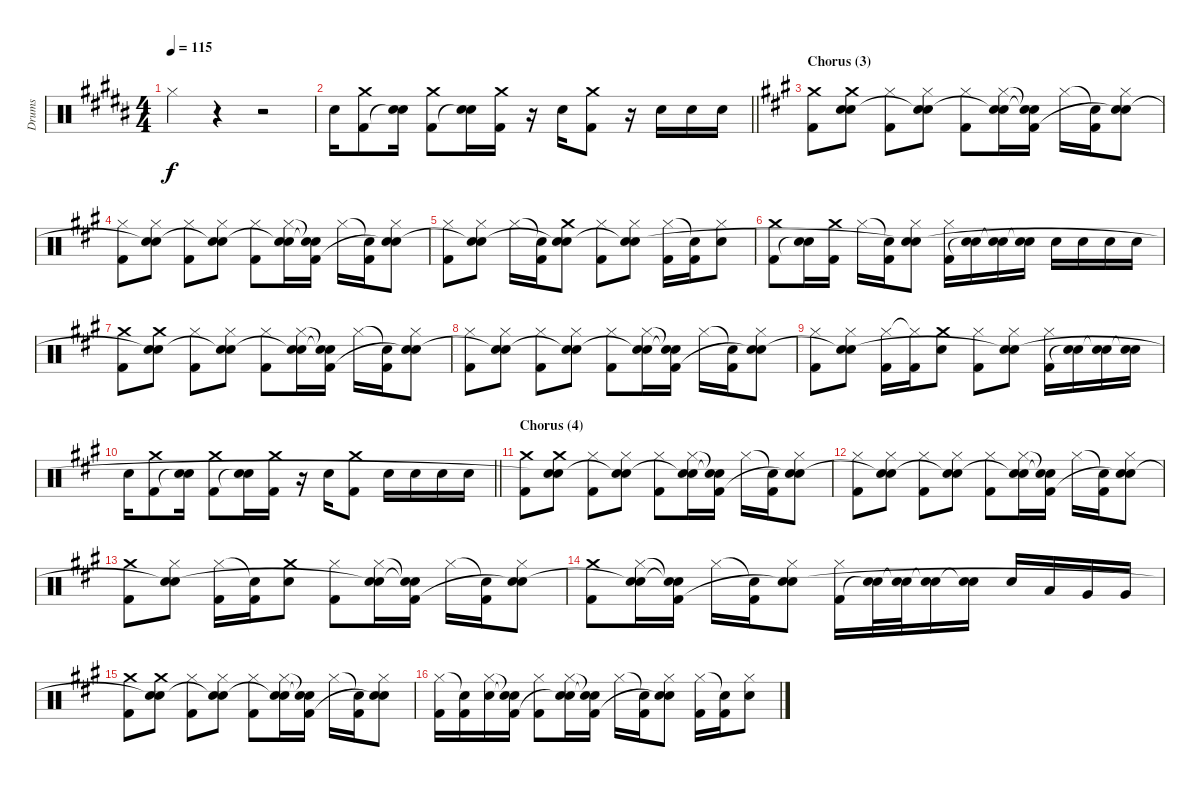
\track ("Drums" "Drums") {instrument percussion}
\staff {score}
\articulation defaults
\ts (4 4)
\tempo 115
\clef neutral
\ks b "Hi-Hat (closed)".4{dy f}
r.4 r.2 |
\barLineRight lightlight "Electric Snare (hit)".16
("Crash medium (hit)" "Kick (hit) 2").8 ("Electric Snare (hit)" "Snare (hit)"{t}).16 ("Crash medium (hit)" "Kick (hit) 2").8 ("Electric Snare (hit)" "Snare (hit)"{t}).16 ("Crash medium (hit)" "Kick (hit) 2").16 r.16 "Electric Snare (hit)".16 ("Crash medium (hit)" "Kick (hit) 2").8 r.16 "Electric Snare (hit)".16 "Electric Snare (hit)".16 "Electric Snare (hit)".16 |
\section ("" "Chorus (3)")
\ks a
("Crash medium (hit)" "Kick (hit) 2").8 ("Crash medium (hit)" "Electric Snare (hit)" "Snare (hit)").8 ("Hi-Hat (closed)" "Kick (hit) 2").8 ("Hi-Hat (closed)" "Electric Snare (hit)" "Snare (hit)"{t}).8 ("Hi-Hat (closed)" "Kick (hit) 2").8 ("Hi-Hat (closed)" "Electric Snare (hit)" "Snare (hit)"{t}).16 ("Snare (hit)"{t} "Snare (hit)"{t} "Kick (hit) 2").16 "Hi-Hat (closed)".16 ("Snare (hit)"{t} "Kick (hit) 2").16 ("Hi-Hat (closed)" "Electric Snare (hit)" "Snare (hit)"{t}).8 |
("Hi-Hat (closed)" "Kick (hit) 2").8 ("Hi-Hat (closed)" "Electric Snare (hit)" "Snare (hit)"{t}).8 ("Hi-Hat (closed)" "Kick (hit) 2").8 ("Hi-Hat (closed)" "Electric Snare (hit)" "Snare (hit)"{t}).8 ("Hi-Hat (closed)" "Kick (hit) 2").8 ("Hi-Hat (closed)" "Electric Snare (hit)" "Snare (hit)"{t}).16 ("Snare (hit)"{t} "Snare (hit)"{t} "Kick (hit) 2").16 "Hi-Hat (closed)".16 ("Snare (hit)"{t} "Kick (hit) 2").16 ("Hi-Hat (closed)" "Electric Snare (hit)" "Snare (hit)"{t}).8 |
("Hi-Hat (closed)" "Kick (hit) 2").8 ("Hi-Hat (closed)" "Electric Snare (hit)" "Snare (hit)"{t}).8 "Hi-Hat (closed)".16 ("Snare (hit)"{t} "Kick (hit) 2").16 ("Crash medium (hit)" "Electric Snare (hit)" "Snare (hit)"{t}).8 ("Hi-Hat (closed)" "Kick (hit) 2").8 ("Hi-Hat (closed)" "Electric Snare (hit)" "Snare (hit)"{t}).8 ("Hi-Hat (closed)" "Kick (hit) 2").16 ("Snare (hit)"{t} "Kick (hit) 2").16 ("Hi-Hat (closed)" "Electric Snare (hit)").8 |
("Crash medium (hit)" "Kick (hit) 2").8 ("Electric Snare (hit)" "Snare (hit)"{t}).16 ("Crash medium (hit)" "Kick (hit) 2").16 "Hi-Hat (closed)".16 ("Snare (hit)"{t} "Kick (hit) 2").16 ("Hi-Hat (closed)" "Electric Snare (hit)" "Snare (hit)"{t}).8 ("Hi-Hat (closed)" "Kick (hit) 2").16 ("Electric Snare (hit)" "Snare (hit)"{t}).16 ("Electric Snare (hit)" "Snare (hit)"{t}).16 ("Electric Snare (hit)" "Snare (hit)"{t}).16 "Electric Snare (hit)".16 "Electric Snare (hit)".16 "Electric Snare (hit)".16 "Electric Snare (hit)".16 |
("Crash medium (hit)" "Kick (hit) 2").8 ("Crash medium (hit)" "Electric Snare (hit)" "Snare (hit)"{t}).8 ("Hi-Hat (closed)" "Kick (hit) 2").8 ("Hi-Hat (closed)" "Electric Snare (hit)" "Snare (hit)"{t}).8 ("Hi-Hat (closed)" "Kick (hit) 2").8 ("Hi-Hat (closed)" "Electric Snare (hit)" "Snare (hit)"{t}).16 ("Snare (hit)"{t} "Snare (hit)"{t} "Kick (hit) 2").16 "Hi-Hat (closed)".16 ("Snare (hit)"{t} "Kick (hit) 2").16 ("Hi-Hat (closed)" "Electric Snare (hit)" "Snare (hit)"{t}).8 |
("Hi-Hat (closed)" "Kick (hit) 2").8 ("Hi-Hat (closed)" "Electric Snare (hit)" "Snare (hit)"{t}).8 ("Hi-Hat (closed)" "Kick (hit) 2").8 ("Hi-Hat (closed)" "Electric Snare (hit)" "Snare (hit)"{t}).8 ("Hi-Hat (closed)" "Kick (hit) 2").8 ("Hi-Hat (closed)" "Electric Snare (hit)" "Snare (hit)"{t}).16 ("Snare (hit)"{t} "Snare (hit)"{t} "Kick (hit) 2").16 "Hi-Hat (closed)".16 ("Snare (hit)"{t} "Kick (hit) 2").16 ("Hi-Hat (closed)" "Electric Snare (hit)" "Snare (hit)"{t}).8 |
("Hi-Hat (closed)" "Kick (hit) 2").8 ("Hi-Hat (closed)" "Electric Snare (hit)" "Snare (hit)"{t}).8 ("Hi-Hat (closed)" "Kick (hit) 2").16 ("Hi-Hat (closed)"{t} "Kick (hit) 2").16 ("Crash medium (hit)" "Electric Snare (hit)").8 ("Hi-Hat (closed)" "Kick (hit) 2").8 ("Hi-Hat (closed)" "Electric Snare (hit)" "Snare (hit)"{t}).8 ("Hi-Hat (closed)" "Kick (hit) 2").16 ("Electric Snare (hit)" "Snare (hit)"{t}).16 ("Electric Snare (hit)" "Snare (hit)"{t}).16 ("Electric Snare (hit)" "Snare (hit)"{t}).16 |
\barLineRight lightlight "Electric Snare (hit)".16
("Crash medium (hit)" "Kick (hit) 2").8 ("Electric Snare (hit)" "Snare (hit)"{t}).16 ("Crash medium (hit)" "Kick (hit) 2").8 ("Electric Snare (hit)" "Snare (hit)"{t}).16 ("Crash medium (hit)" "Kick (hit) 2").16 r.16 "Electric Snare (hit)".16 ("Crash medium (hit)" "Kick (hit) 2").8 "Electric Snare (hit)".16 "Electric Snare (hit)".16 "Electric Snare (hit)".16 "Electric Snare (hit)".16 |
\section ("" "Chorus (4)")
("Crash medium (hit)" "Kick (hit) 2").8 ("Crash medium (hit)" "Electric Snare (hit)" "Snare (hit)"{t}).8 ("Hi-Hat (closed)" "Kick (hit) 2").8 ("Hi-Hat (closed)" "Electric Snare (hit)" "Snare (hit)"{t}).8 ("Hi-Hat (closed)" "Kick (hit) 2").8 ("Hi-Hat (closed)" "Electric Snare (hit)" "Snare (hit)"{t}).16 ("Snare (hit)"{t} "Snare (hit)"{t} "Kick (hit) 2").16 "Hi-Hat (closed)".16 ("Snare (hit)"{t} "Kick (hit) 2").16 ("Hi-Hat (closed)" "Electric Snare (hit)" "Snare (hit)"{t}).8 |
("Hi-Hat (closed)" "Kick (hit) 2").8 ("Hi-Hat (closed)" "Electric Snare (hit)" "Snare (hit)"{t}).8 ("Hi-Hat (closed)" "Kick (hit) 2").8 ("Hi-Hat (closed)" "Electric Snare (hit)" "Snare (hit)"{t}).8 ("Hi-Hat (closed)" "Kick (hit) 2").8 ("Hi-Hat (closed)" "Electric Snare (hit)" "Snare (hit)"{t}).16 ("Snare (hit)"{t} "Snare (hit)"{t} "Kick (hit) 2").16 "Hi-Hat (closed)".16 ("Snare (hit)"{t} "Kick (hit) 2").16 ("Hi-Hat (closed)" "Electric Snare (hit)" "Snare (hit)"{t}).8 |
("Crash medium (hit)" "Kick (hit) 2").8 ("Hi-Hat (closed)" "Electric Snare (hit)" "Snare (hit)"{t}).8 ("Hi-Hat (closed)" "Kick (hit) 2").16 ("Snare (hit)"{t} "Kick (hit) 2").16 ("Crash medium (hit)" "Electric Snare (hit)").8 ("Hi-Hat (closed)" "Kick (hit) 2").8 ("Hi-Hat (closed)" "Electric Snare (hit)" "Snare (hit)"{t}).16 ("Snare (hit)"{t} "Snare (hit)"{t} "Kick (hit) 2").16 "Hi-Hat (closed)".16 ("Snare (hit)"{t} "Kick (hit) 2").16 ("Hi-Hat (closed)" "Electric Snare (hit)" "Snare (hit)"{t}).8 |
("Crash medium (hit)" "Kick (hit) 2").8 ("Hi-Hat (closed)" "Electric Snare (hit)" "Snare (hit)"{t}).16 ("Snare (hit)"{t} "Snare (hit)"{t} "Kick (hit) 2").16 "Hi-Hat (closed)".16 ("Snare (hit)"{t} "Kick (hit) 2").16 ("Hi-Hat (closed)" "Electric Snare (hit)" "Snare (hit)"{t}).8 ("Hi-Hat (closed)" "Kick (hit) 2").16 ("Electric Snare (hit)" "Snare (hit)"{t}).32 ("Electric Snare (hit)" "Snare (hit)"{t}).32 ("Electric Snare (hit)" "Snare (hit)"{t}).16 ("Electric Snare (hit)" "Snare (hit)"{t}).16 "Electric Snare (hit)".16 "Low Tom (hit)".16 "Very Low Tom (hit)".16 "Very Low Tom (hit)".16 |
("Crash medium (hit)" "Kick (hit) 2").8 ("Crash medium (hit)" "Electric Snare (hit)" "Snare (hit)"{t}).8 ("Hi-Hat (closed)" "Kick (hit) 2").8 ("Hi-Hat (closed)" "Electric Snare (hit)" "Snare (hit)"{t}).8 ("Hi-Hat (closed)" "Kick (hit) 2").8 ("Hi-Hat (closed)" "Electric Snare (hit)" "Snare (hit)"{t}).16 ("Snare (hit)"{t} "Snare (hit)"{t} "Kick (hit) 2").16 "Hi-Hat (closed)".16 ("Snare (hit)"{t} "Kick (hit) 2").16 ("Hi-Hat (closed)" "Electric Snare (hit)" "Snare (hit)"{t}).8 |
("Hi-Hat (closed)" "Kick (hit) 2").16 ("Snare (hit)"{t} "Kick (hit) 2").16 ("Hi-Hat (closed)" "Electric Snare (hit)").16 ("Snare (hit)"{t} "Snare (hit)"{t} "Kick (hit) 2").16 ("Hi-Hat (closed)" "Kick (hit) 2").8 ("Hi-Hat (closed)" "Electric Snare (hit)" "Snare (hit)"{t}).16 ("Snare (hit)"{t} "Snare (hit)"{t} "Kick (hit) 2").16 "Hi-Hat (closed)".16 ("Snare (hit)"{t} "Kick (hit) 2").16 ("Hi-Hat (closed)" "Electric Snare (hit)" "Snare (hit)"{t}).8 ("Hi-Hat (closed)" "Kick (hit) 2").16 ("Snare (hit)"{t} "Kick (hit) 2").16 ("Hi-Hat (closed)" "Electric Snare (hit)").8
